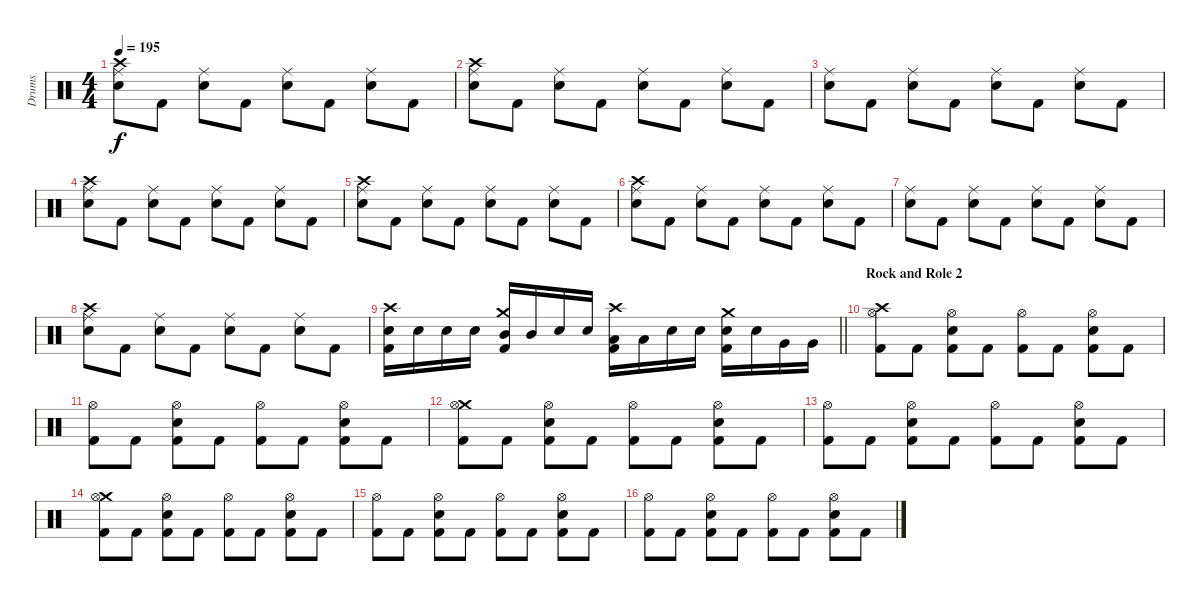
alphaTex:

\track ("Drums" "Drums") {instrument percussion}
\staff {score}
\articulation defaults
\ts (4 4)
\tempo 195
\clef neutral
\ks c
("Crash high (hit)" "Ride (middle)" "Snare (hit) 2").8{dy f} "Kick (hit) 2".8 ("Ride (middle)" "Snare (hit) 2").8 "Kick (hit) 2".8 ("Ride (middle)" "Snare (hit) 2").8 "Kick (hit) 2".8 ("Ride (middle)" "Snare (hit) 2").8 "Kick (hit) 2".8 |
("Crash high (hit)" "Ride (middle)" "Snare (hit) 2").8 "Kick (hit) 2".8 ("Ride (middle)" "Snare (hit) 2").8 "Kick (hit) 2".8 ("Ride (middle)" "Snare (hit) 2").8 "Kick (hit) 2".8 ("Ride (middle)" "Snare (hit) 2").8 "Kick (hit) 2".8 |
("Ride (middle)" "Snare (hit) 2").8 "Kick (hit) 2".8 ("Ride (middle)" "Snare (hit) 2").8 "Kick (hit) 2".8 ("Ride (middle)" "Snare (hit) 2").8 "Kick (hit) 2".8 ("Ride (middle)" "Snare (hit) 2").8 "Kick (hit) 2".8 |
("Crash high (hit)" "Ride (middle)" "Snare (hit) 2").8 "Kick (hit) 2".8 ("Ride (middle)" "Snare (hit) 2").8 "Kick (hit) 2".8 ("Ride (middle)" "Snare (hit) 2").8 "Kick (hit) 2".8 ("Ride (middle)" "Snare (hit) 2").8 "Kick (hit) 2".8 |
("Crash high (hit)" "Ride (middle)" "Snare (hit) 2").8 "Kick (hit) 2".8 ("Ride (middle)" "Snare (hit) 2").8 "Kick (hit) 2".8 ("Ride (middle)" "Snare (hit) 2").8 "Kick (hit) 2".8 ("Ride (middle)" "Snare (hit) 2").8 "Kick (hit) 2".8 |
("Crash high (hit)" "Ride (middle)" "Snare (hit) 2").8 "Kick (hit) 2".8 ("Ride (middle)" "Snare (hit) 2").8 "Kick (hit) 2".8 ("Ride (middle)" "Snare (hit) 2").8 "Kick (hit) 2".8 ("Ride (middle)" "Snare (hit) 2").8 "Kick (hit) 2".8 |
("Ride (middle)" "Snare (hit) 2").8 "Kick (hit) 2".8 ("Ride (middle)" "Snare (hit) 2").8 "Kick (hit) 2".8 ("Ride (middle)" "Snare (hit) 2").8 "Kick (hit) 2".8 ("Ride (middle)" "Snare (hit) 2").8 "Kick (hit) 2".8 |
("Crash high (hit)" "Ride (middle)" "Snare (hit) 2").8 "Kick (hit) 2".8 ("Ride (middle)" "Snare (hit) 2").8 "Kick (hit) 2".8 ("Ride (middle)" "Snare (hit) 2").8 "Kick (hit) 2".8 ("Ride (middle)" "Snare (hit) 2").8 "Kick (hit) 2".8 |
\barLineRight lightlight
("Crash high (hit)" "Snare (hit) 2" "Kick (hit) 2").16 "Snare (hit) 2".16 "Snare (hit) 2".16 "Snare (hit) 2".16 ("Crash medium (hit)" "Mid Tom (hit)" "Kick (hit) 2").16 "Mid Tom (hit)".16 "Snare (hit) 2".16 "Snare (hit) 2".16 ("Crash high (hit)" "Low Tom (hit)" "Kick (hit) 2").16 "Low Tom (hit)".16 "Snare (hit) 2".16 "Snare (hit) 2".16 ("Crash medium (hit)" "Snare (hit) 2" "Kick (hit) 2").16 "Snare (hit) 2".16 "Very Low Tom (hit)".16 "Very Low Tom (hit)".16 |
\section ("" "Rock and Role 2")
("Crash high (hit)" "Hi-Hat (open)" "Kick (hit) 2").8 "Kick (hit) 2".8 ("Hi-Hat (open)" "Snare (hit) 2" "Kick (hit) 2").8 "Kick (hit) 2".8 ("Hi-Hat (open)" "Kick (hit) 2").8 "Kick (hit) 2".8 ("Hi-Hat (open)" "Snare (hit) 2" "Kick (hit) 2").8 "Kick (hit) 2".8 |
("Hi-Hat (open)" "Kick (hit) 2").8 "Kick (hit) 2".8 ("Hi-Hat (open)" "Snare (hit) 2" "Kick (hit) 2").8 "Kick (hit) 2".8 ("Hi-Hat (open)" "Kick (hit) 2").8 "Kick (hit) 2".8 ("Hi-Hat (open)" "Snare (hit) 2" "Kick (hit) 2").8 "Kick (hit) 2".8 |
("Crash medium (hit)" "Hi-Hat (open)" "Kick (hit) 2").8 "Kick (hit) 2".8 ("Hi-Hat (open)" "Snare (hit) 2" "Kick (hit) 2").8 "Kick (hit) 2".8 ("Hi-Hat (open)" "Kick (hit) 2").8 "Kick (hit) 2".8 ("Hi-Hat (open)" "Snare (hit) 2" "Kick (hit) 2").8 "Kick (hit) 2".8 |
("Hi-Hat (open)" "Kick (hit) 2").8 "Kick (hit) 2".8 ("Hi-Hat (open)" "Snare (hit) 2" "Kick (hit) 2").8 "Kick (hit) 2".8 ("Hi-Hat (open)" "Kick (hit) 2").8 "Kick (hit) 2".8 ("Hi-Hat (open)" "Snare (hit) 2" "Kick (hit) 2").8 "Kick (hit) 2".8 |
("Crash medium (hit)" "Hi-Hat (open)" "Kick (hit) 2").8 "Kick (hit) 2".8 ("Hi-Hat (open)" "Snare (hit) 2" "Kick (hit) 2").8 "Kick (hit) 2".8 ("Hi-Hat (open)" "Kick (hit) 2").8 "Kick (hit) 2".8 ("Hi-Hat (open)" "Snare (hit) 2" "Kick (hit) 2").8 "Kick (hit) 2".8 |
("Hi-Hat (open)" "Kick (hit) 2").8 "Kick (hit) 2".8 ("Hi-Hat (open)" "Snare (hit) 2" "Kick (hit) 2").8 "Kick (hit) 2".8 ("Hi-Hat (open)" "Kick (hit) 2").8 "Kick (hit) 2".8 ("Hi-Hat (open)" "Snare (hit) 2" "Kick (hit) 2").8 "Kick (hit) 2".8 |
("Hi-Hat (open)" "Kick (hit) 2").8 "Kick (hit) 2".8 ("Hi-Hat (open)" "Snare (hit) 2" "Kick (hit) 2").8 "Kick (hit) 2".8 ("Hi-Hat (open)" "Kick (hit) 2").8 "Kick (hit) 2".8 ("Hi-Hat (open)" "Snare (hit) 2" "Kick (hit) 2").8 "Kick (hit) 2".8
